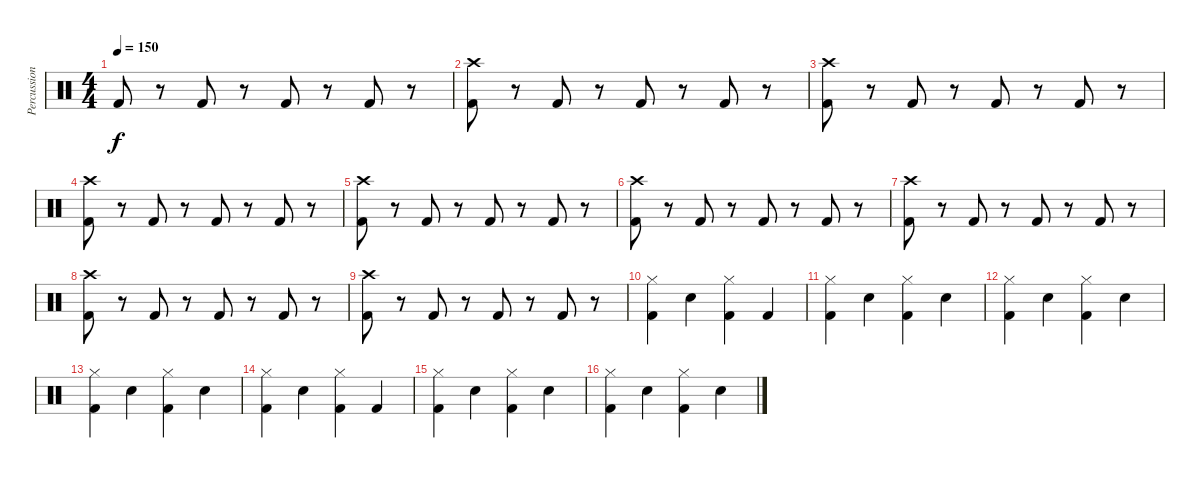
\track ("Percussion" "Percussion") {instrument percussion}
\staff {score}
\articulation defaults
\ts (4 4)
\tempo 150
\clef neutral
\ks c "Kick (hit) 2".8{dy f}
r.8 "Kick (hit) 2".8 r.8 "Kick (hit) 2".8 r.8 "Kick (hit) 2".8 r.8 |
("Kick (hit) 2" "Crash high (hit)").8 r.8 "Kick (hit) 2".8 r.8 "Kick (hit) 2".8 r.8 "Kick (hit) 2".8 r.8 |
("Kick (hit) 2" "Crash high (hit)").8 r.8 "Kick (hit) 2".8 r.8 "Kick (hit) 2".8 r.8 "Kick (hit) 2".8 r.8 |
("Kick (hit) 2" "Crash high (hit)").8 r.8 "Kick (hit) 2".8 r.8 "Kick (hit) 2".8 r.8 "Kick (hit) 2".8 r.8 |
("Kick (hit) 2" "Crash high (hit)").8 r.8 "Kick (hit) 2".8 r.8 "Kick (hit) 2".8 r.8 "Kick (hit) 2".8 r.8 |
("Kick (hit) 2" "Crash high (hit)").8 r.8 "Kick (hit) 2".8 r.8 "Kick (hit) 2".8 r.8 "Kick (hit) 2".8 r.8 |
("Kick (hit) 2" "Crash high (hit)").8 r.8 "Kick (hit) 2".8 r.8 "Kick (hit) 2".8 r.8 "Kick (hit) 2".8 r.8 |
("Kick (hit) 2" "Crash high (hit)").8 r.8 "Kick (hit) 2".8 r.8 "Kick (hit) 2".8 r.8 "Kick (hit) 2".8 r.8 |
("Kick (hit) 2" "Crash high (hit)").8 r.8 "Kick (hit) 2".8 r.8 "Kick (hit) 2".8 r.8 "Kick (hit) 2".8 r.8 |
("Hi-Hat (closed)" "Kick (hit) 2").4 "Snare (hit) 2".4 ("Hi-Hat (closed)" "Kick (hit) 2").4 "Kick (hit) 2".4 |
("Hi-Hat (closed)" "Kick (hit) 2").4 "Snare (hit) 2".4 ("Hi-Hat (closed)" "Kick (hit) 2").4 "Snare (hit) 2".4 |
("Hi-Hat (closed)" "Kick (hit) 2").4 "Snare (hit) 2".4 ("Hi-Hat (closed)" "Kick (hit) 2").4 "Snare (hit) 2".4 |
("Hi-Hat (closed)" "Kick (hit) 2").4 "Snare (hit) 2".4 ("Hi-Hat (closed)" "Kick (hit) 2").4 "Snare (hit) 2".4 |
("Hi-Hat (closed)" "Kick (hit) 2").4 "Snare (hit) 2".4 ("Hi-Hat (closed)" "Kick (hit) 2").4 "Kick (hit) 2".4 |
("Hi-Hat (closed)" "Kick (hit) 2").4 "Snare (hit) 2".4 ("Hi-Hat (closed)" "Kick (hit) 2").4 "Snare (hit) 2".4 |
("Hi-Hat (closed)" "Kick (hit) 2").4 "Snare (hit) 2".4 ("Hi-Hat (closed)" "Kick (hit) 2").4 "Snare (hit) 2".4
